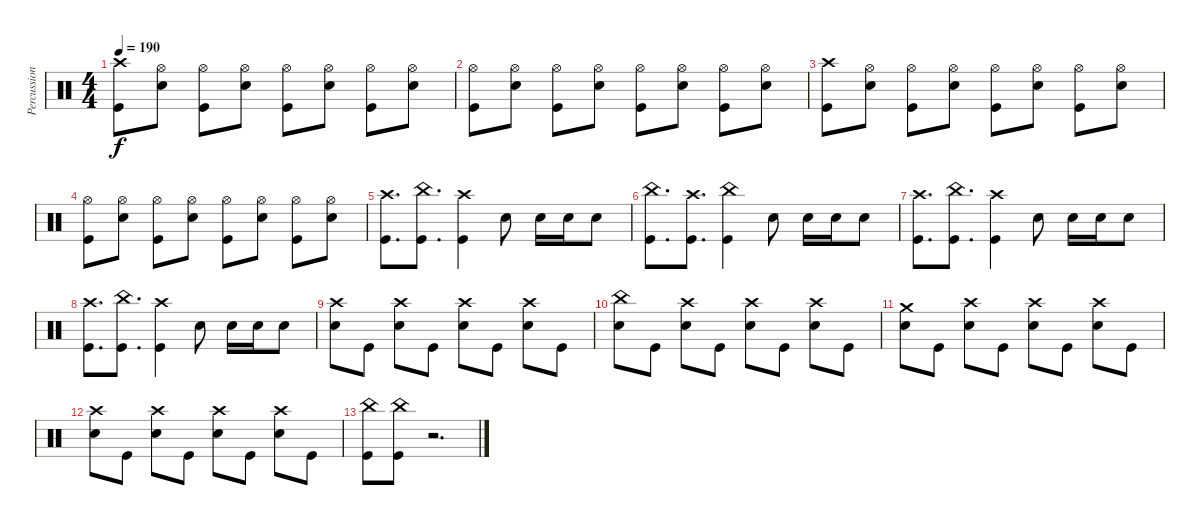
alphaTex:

\track ("Percussion" "Percussion") {instrument percussion}
\staff {score}
\articulation defaults
\ts (4 4)
\tempo 190
\clef neutral
\ks c
("Crash high (hit)" "Kick (hit)").8{dy f} ("Hi-Hat (open)" "Electric Snare (hit)").8 ("Hi-Hat (open)" "Kick (hit)").8 ("Hi-Hat (open)" "Electric Snare (hit)").8 ("Hi-Hat (open)" "Kick (hit)").8 ("Hi-Hat (open)" "Electric Snare (hit)").8 ("Hi-Hat (open)" "Kick (hit)").8 ("Hi-Hat (open)" "Electric Snare (hit)").8 |
("Hi-Hat (open)" "Kick (hit)").8 ("Hi-Hat (open)" "Electric Snare (hit)").8 ("Hi-Hat (open)" "Kick (hit)").8 ("Hi-Hat (open)" "Electric Snare (hit)").8 ("Hi-Hat (open)" "Kick (hit)").8 ("Hi-Hat (open)" "Electric Snare (hit)").8 ("Hi-Hat (open)" "Kick (hit)").8 ("Hi-Hat (open)" "Electric Snare (hit)").8 |
("Crash high (hit)" "Kick (hit)").8 ("Hi-Hat (open)" "Electric Snare (hit)").8 ("Hi-Hat (open)" "Kick (hit)").8 ("Hi-Hat (open)" "Electric Snare (hit)").8 ("Hi-Hat (open)" "Kick (hit)").8 ("Hi-Hat (open)" "Electric Snare (hit)").8 ("Hi-Hat (open)" "Kick (hit)").8 ("Hi-Hat (open)" "Electric Snare (hit)").8 |
("Hi-Hat (open)" "Kick (hit)").8 ("Hi-Hat (open)" "Electric Snare (hit)").8 ("Hi-Hat (open)" "Kick (hit)").8 ("Hi-Hat (open)" "Electric Snare (hit)").8 ("Hi-Hat (open)" "Kick (hit)").8 ("Hi-Hat (open)" "Electric Snare (hit)").8 ("Hi-Hat (open)" "Kick (hit)").8 ("Hi-Hat (open)" "Electric Snare (hit)").8 |
("Crash high (hit)" "Kick (hit)").8{d} ("China (hit)" "Kick (hit)").8{d} ("Crash high (hit)" "Kick (hit)").4 "Electric Snare (hit)".8 "Electric Snare (hit)".16 "Electric Snare (hit)".16 "Electric Snare (hit)".8 |
("China (hit)" "Kick (hit)").8{d} ("Crash high (hit)" "Kick (hit)").8{d} ("China (hit)" "Kick (hit)").4 "Electric Snare (hit)".8 "Electric Snare (hit)".16 "Electric Snare (hit)".16 "Electric Snare (hit)".8 |
("Crash high (hit)" "Kick (hit)").8{d} ("China (hit)" "Kick (hit)").8{d} ("Crash high (hit)" "Kick (hit)").4 "Electric Snare (hit)".8 "Electric Snare (hit)".16 "Electric Snare (hit)".16 "Electric Snare (hit)".8 |
("Crash high (hit)" "Kick (hit)").8{d} ("China (hit)" "Kick (hit)").8{d} ("Crash high (hit)" "Kick (hit)").4 "Electric Snare (hit)".8 "Electric Snare (hit)".16 "Electric Snare (hit)".16 "Electric Snare (hit)".8 |
("Crash high (hit)" "Electric Snare (hit)").8 "Kick (hit)".8 ("Crash high (hit)" "Electric Snare (hit)").8 "Kick (hit)".8 ("Crash high (hit)" "Electric Snare (hit)").8 "Kick (hit)".8 ("Crash high (hit)" "Electric Snare (hit)").8 "Kick (hit)".8 |
("China (hit)" "Electric Snare (hit)").8 "Kick (hit)".8 ("Crash high (hit)" "Electric Snare (hit)").8 "Kick (hit)".8 ("Crash high (hit)" "Electric Snare (hit)").8 "Kick (hit)".8 ("Crash high (hit)" "Electric Snare (hit)").8 "Kick (hit)".8 |
("Crash medium (hit)" "Electric Snare (hit)").8 "Kick (hit)".8 ("Crash high (hit)" "Electric Snare (hit)").8 "Kick (hit)".8 ("Crash high (hit)" "Electric Snare (hit)").8 "Kick (hit)".8 ("Crash high (hit)" "Electric Snare (hit)").8 "Kick (hit)".8 |
("Crash high (hit)" "Electric Snare (hit)").8 "Kick (hit)".8 ("Crash high (hit)" "Electric Snare (hit)").8 "Kick (hit)".8 ("Crash high (hit)" "Electric Snare (hit)").8 "Kick (hit)".8 ("Crash high (hit)" "Electric Snare (hit)").8 "Kick (hit)".8 |
("China (hit)" "Kick (hit)").8 ("China (hit)" "Kick (hit)").8 r.2{d}
